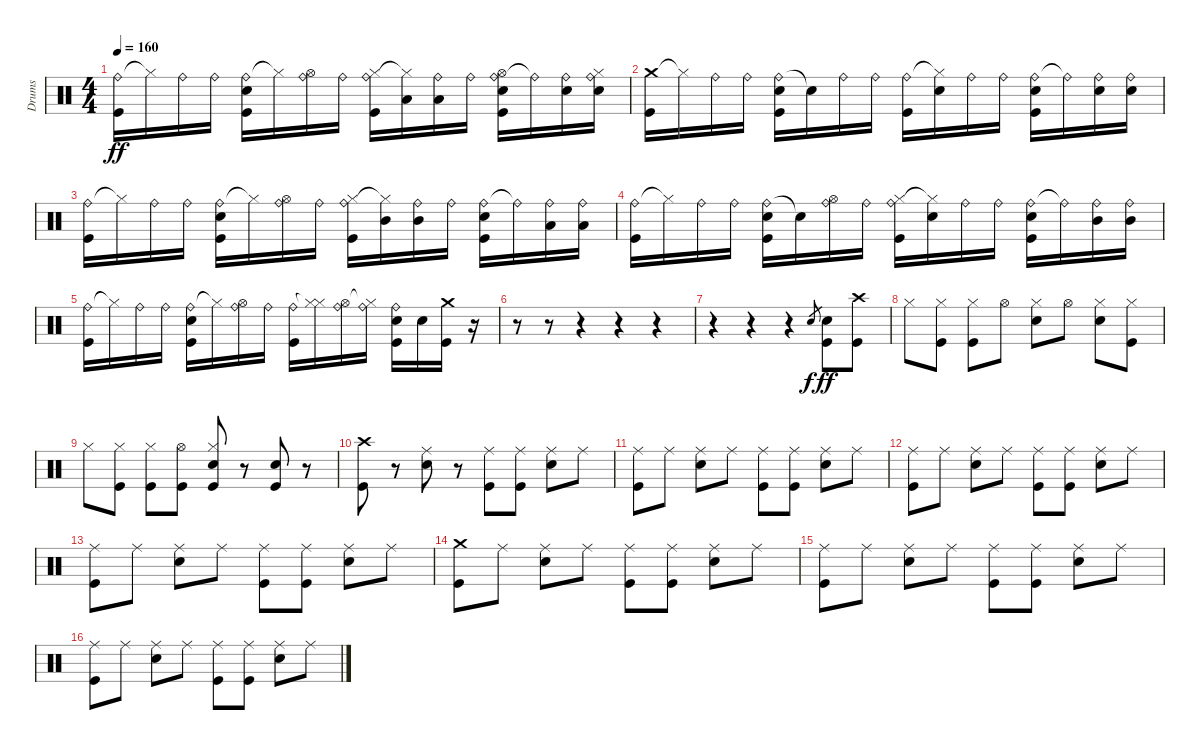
\track ("Drums" "Drums") {instrument percussion}
\staff {score}
\articulation defaults
\ts (4 4)
\tempo 160
\clef neutral
\ks c
("Ride (bell)" "Kick (hit)").16{dy ff} "Hi-Hat (closed)"{t}.16 "Ride (bell)".16 "Ride (bell)".16 ("Ride (bell)" "Electric Snare (hit)" "Kick (hit)").16 "Hi-Hat (closed)"{t}.16 ("Ride (bell)" "Hi-Hat (open)").16 "Ride (bell)".16 ("Ride (bell)" "Hi-Hat (closed)" "Kick (hit)").16 ("Hi-Hat (closed)"{t} "Low Tom (hit)").16 ("Ride (bell)" "Low Tom (hit)").16 "Ride (bell)".16 ("Ride (bell)" "Hi-Hat (open)" "Electric Snare (hit)" "Kick (hit)").16 "Ride (bell)"{t}.16 ("Ride (bell)" "Electric Snare (hit)").16 ("Ride (bell)" "Hi-Hat (closed)" "Electric Snare (hit)").16 |
("Crash medium (hit)" "Kick (hit)").16 "Hi-Hat (closed)"{t}.16 "Ride (bell)".16 "Ride (bell)".16 ("Ride (bell)" "Electric Snare (hit)" "Kick (hit)").16 "Snare (hit)"{t}.16 "Ride (bell)".16 "Ride (bell)".16 ("Ride (bell)" "Kick (hit)").16 ("Hi-Hat (closed)"{t} "Electric Snare (hit)").16 "Ride (bell)".16 "Ride (bell)".16 ("Ride (bell)" "Electric Snare (hit)" "Kick (hit)").16 "Ride (bell)"{t}.16 ("Ride (bell)" "Electric Snare (hit)").16 ("Ride (bell)" "Electric Snare (hit)").16 |
("Ride (bell)" "Kick (hit)").16 "Hi-Hat (closed)"{t}.16 "Ride (bell)".16 "Ride (bell)".16 ("Ride (bell)" "Electric Snare (hit)" "Kick (hit)").16 "Hi-Hat (closed)"{t}.16 ("Ride (bell)" "Hi-Hat (open)").16 "Ride (bell)".16 ("Ride (bell)" "Hi-Hat (closed)" "Kick (hit)").16 ("Hi-Hat (closed)"{t} "Mid Tom (hit)").16 ("Ride (bell)" "Mid Tom (hit)").16 "Ride (bell)".16 ("Ride (bell)" "Electric Snare (hit)" "Kick (hit)").16 "Ride (bell)"{t}.16 ("Ride (bell)" "Low Tom (hit)").16 ("Ride (bell)" "Low Tom (hit)").16 |
("Ride (bell)" "Kick (hit)").16 "Hi-Hat (closed)"{t}.16 "Ride (bell)".16 "Ride (bell)".16 ("Ride (bell)" "Electric Snare (hit)" "Kick (hit)").16 "Snare (hit)"{t}.16 ("Ride (bell)" "Hi-Hat (open)").16 "Ride (bell)".16 ("Ride (bell)" "Hi-Hat (closed)" "Kick (hit)").16 ("Hi-Hat (closed)"{t} "Electric Snare (hit)").16 "Ride (bell)".16 "Ride (bell)".16 ("Ride (bell)" "Electric Snare (hit)" "Kick (hit)").16 "Ride (bell)"{t}.16 ("Ride (bell)" "Mid Tom (hit)").16 ("Ride (bell)" "Mid Tom (hit)").16 |
("Ride (bell)" "Kick (hit)").16 "Hi-Hat (closed)"{t}.16 "Ride (bell)".16 "Ride (bell)".16 ("Ride (bell)" "Electric Snare (hit)" "Kick (hit)").16 "Hi-Hat (closed)"{t}.16 ("Ride (bell)" "Hi-Hat (open)").16 "Ride (bell)".16 ("Ride (bell)" "Kick (hit)").16 ("Hi-Hat (closed)"{t} "Hi-Hat (closed)").16 ("Ride (bell)" "Hi-Hat (open)").16 ("Ride (bell)" "Hi-Hat (closed)"{t}).16 ("Ride (bell)" "Electric Snare (hit)" "Kick (hit)").16 "Electric Snare (hit)".16 ("Crash medium (hit)" "Kick (hit)").16 r.16 |
r.8 r.8 r.4 r.4 r.4 |
r.4 r.4 r.4 "Electric Snare (hit)".8{gr dy f} ("Electric Snare (hit)" "Kick (hit)").8{dy ff} ("Crash high (hit)" "Kick (hit)").8 |
"Hi-Hat (closed)".8 ("Hi-Hat (closed)" "Kick (hit)").8 ("Hi-Hat (closed)" "Kick (hit)").8 "Hi-Hat (open)".8 ("Hi-Hat (closed)" "Electric Snare (hit)").8 "Hi-Hat (open)".8 ("Hi-Hat (closed)" "Electric Snare (hit)").8 ("Hi-Hat (closed)" "Kick (hit)").8 |
"Hi-Hat (closed)".8 ("Hi-Hat (closed)" "Kick (hit)").8 ("Hi-Hat (closed)" "Kick (hit)").8 ("Hi-Hat (open)" "Kick (hit)").8 ("Hi-Hat (closed)" "Electric Snare (hit)" "Kick (hit)").8 r.8 ("Snare (hit) 2" "Kick (hit)").8 r.8 |
("Crash high (hit)" "Kick (hit)").8 r.8 ("Ride (middle)" "Electric Snare (hit)").8 r.8 ("Ride (middle)" "Kick (hit)").8 ("Ride (middle)" "Kick (hit)").8 ("Ride (middle)" "Electric Snare (hit)").8 "Ride (middle)".8 |
("Ride (middle)" "Kick (hit)").8 "Ride (middle)".8 ("Ride (middle)" "Electric Snare (hit)").8 "Ride (middle)".8 ("Ride (middle)" "Kick (hit)").8 ("Ride (middle)" "Kick (hit)").8 ("Ride (middle)" "Electric Snare (hit)").8 "Ride (middle)".8 |
("Ride (middle)" "Kick (hit)").8 "Ride (middle)".8 ("Ride (middle)" "Electric Snare (hit)").8 "Ride (middle)".8 ("Ride (middle)" "Kick (hit)").8 ("Ride (middle)" "Kick (hit)").8 ("Ride (middle)" "Electric Snare (hit)").8 "Ride (middle)".8 |
("Ride (middle)" "Kick (hit)").8 "Ride (middle)".8 ("Ride (middle)" "Electric Snare (hit)").8 "Ride (middle)".8 ("Ride (middle)" "Kick (hit)").8 ("Ride (middle)" "Kick (hit)").8 ("Ride (middle)" "Electric Snare (hit)").8 "Ride (middle)".8 |
("Crash medium (hit)" "Kick (hit)").8 "Ride (middle)".8 ("Ride (middle)" "Electric Snare (hit)").8 "Ride (middle)".8 ("Ride (middle)" "Kick (hit)").8 ("Ride (middle)" "Kick (hit)").8 ("Ride (middle)" "Electric Snare (hit)").8 "Ride (middle)".8 |
("Ride (middle)" "Kick (hit)").8 "Ride (middle)".8 ("Ride (middle)" "Electric Snare (hit)").8 "Ride (middle)".8 ("Ride (middle)" "Kick (hit)").8 ("Ride (middle)" "Kick (hit)").8 ("Ride (middle)" "Electric Snare (hit)").8 "Ride (middle)".8 |
("Ride (middle)" "Kick (hit)").8 "Ride (middle)".8 ("Ride (middle)" "Electric Snare (hit)").8 "Ride (middle)".8 ("Ride (middle)" "Kick (hit)").8 ("Ride (middle)" "Kick (hit)").8 ("Ride (middle)" "Electric Snare (hit)").8 "Ride (middle)".8
